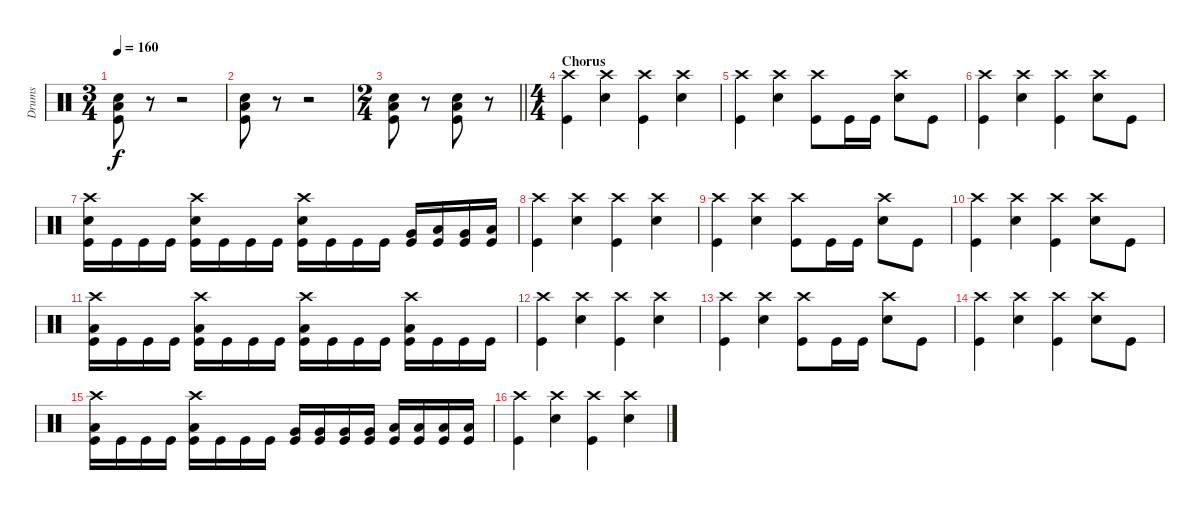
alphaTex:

\track ("Drums" "Drums") {instrument percussion}
\staff {score}
\articulation defaults
\ts (3 4)
\tempo 160
\clef neutral
\ks c
("Snare (hit) 2" "Kick (hit)" "Low Floor Tom (hit)").8{dy f} r.8 r.2 |
("Snare (hit) 2" "Kick (hit)" "Low Floor Tom (hit)").8 r.8 r.2 |
\ts (2 4)
\barLineRight lightlight
("Snare (hit) 2" "Kick (hit)" "Low Floor Tom (hit)").8 r.8 ("Snare (hit) 2" "Kick (hit)" "Low Floor Tom (hit)").8 r.8 |
\ts (4 4)
\section ("" "Chorus")
("Kick (hit)" "Crash high (hit)").4 ("Snare (hit) 2" "Crash high (hit)").4 ("Kick (hit)" "Crash high (hit)").4 ("Snare (hit) 2" "Crash high (hit)").4 |
("Kick (hit)" "Crash high (hit)").4 ("Snare (hit) 2" "Crash high (hit)").4 ("Kick (hit)" "Crash high (hit)").8 "Kick (hit)".16 "Kick (hit)".16 ("Snare (hit) 2" "Crash high (hit)").8 "Kick (hit)".8 |
("Kick (hit)" "Crash high (hit)").4 ("Snare (hit) 2" "Crash high (hit)").4 ("Kick (hit)" "Crash high (hit)").4 ("Snare (hit) 2" "Crash high (hit)").8 "Kick (hit)".8 |
("Kick (hit)" "Snare (hit) 2" "Crash high (hit)").16 "Kick (hit)".16 "Kick (hit)".16 "Kick (hit)".16 ("Kick (hit)" "Snare (hit) 2" "Crash high (hit)").16 "Kick (hit)".16 "Kick (hit)".16 "Kick (hit)".16 ("Kick (hit)" "Snare (hit) 2" "Crash high (hit)").16 "Kick (hit)".16 "Kick (hit)".16 "Kick (hit)".16 ("Kick (hit)" "Very Low Tom (hit)").16 ("Low Floor Tom (hit)" "Kick (hit)").16 ("Kick (hit)" "Very Low Tom (hit)").16 ("Kick (hit)" "Low Floor Tom (hit)").16 |
("Kick (hit)" "Crash high (hit)").4 ("Snare (hit) 2" "Crash high (hit)").4 ("Kick (hit)" "Crash high (hit)").4 ("Snare (hit) 2" "Crash high (hit)").4 |
("Kick (hit)" "Crash high (hit)").4 ("Snare (hit) 2" "Crash high (hit)").4 ("Kick (hit)" "Crash high (hit)").8 "Kick (hit)".16 "Kick (hit)".16 ("Snare (hit) 2" "Crash high (hit)").8 "Kick (hit)".8 |
("Kick (hit)" "Crash high (hit)").4 ("Snare (hit) 2" "Crash high (hit)").4 ("Kick (hit)" "Crash high (hit)").4 ("Snare (hit) 2" "Crash high (hit)").8 "Kick (hit)".8 |
("Kick (hit)" "Low Floor Tom (hit)" "Crash high (hit)").16 "Kick (hit)".16 "Kick (hit)".16 "Kick (hit)".16 ("Kick (hit)" "Low Floor Tom (hit)" "Crash high (hit)").16 "Kick (hit)".16 "Kick (hit)".16 "Kick (hit)".16 ("Kick (hit)" "Low Floor Tom (hit)" "Crash high (hit)").16 "Kick (hit)".16 "Kick (hit)".16 "Kick (hit)".16 ("Kick (hit)" "Low Floor Tom (hit)" "Crash high (hit)").16 "Kick (hit)".16 "Kick (hit)".16 "Kick (hit)".16 |
("Kick (hit)" "Crash high (hit)").4 ("Snare (hit) 2" "Crash high (hit)").4 ("Kick (hit)" "Crash high (hit)").4 ("Snare (hit) 2" "Crash high (hit)").4 |
("Kick (hit)" "Crash high (hit)").4 ("Snare (hit) 2" "Crash high (hit)").4 ("Kick (hit)" "Crash high (hit)").8 "Kick (hit)".16 "Kick (hit)".16 ("Snare (hit) 2" "Crash high (hit)").8 "Kick (hit)".8 |
("Kick (hit)" "Crash high (hit)").4 ("Snare (hit) 2" "Crash high (hit)").4 ("Kick (hit)" "Crash high (hit)").4 ("Snare (hit) 2" "Crash high (hit)").8 "Kick (hit)".8 |
("Kick (hit)" "Low Floor Tom (hit)" "Crash high (hit)").16 "Kick (hit)".16 "Kick (hit)".16 "Kick (hit)".16 ("Kick (hit)" "Low Floor Tom (hit)" "Crash high (hit)").16 "Kick (hit)".16 "Kick (hit)".16 "Kick (hit)".16 ("Kick (hit)" "Very Low Tom (hit)").16 ("Kick (hit)" "Very Low Tom (hit)").16 ("Very Low Tom (hit)" "Kick (hit)").16 ("Kick (hit)" "Very Low Tom (hit)").16 ("Kick (hit)" "Low Floor Tom (hit)").16 ("Kick (hit)" "Low Floor Tom (hit)").16 ("Low Floor Tom (hit)" "Kick (hit)").16 ("Kick (hit)" "Low Floor Tom (hit)").16 |
("Kick (hit)" "Crash high (hit)").4 ("Snare (hit) 2" "Crash high (hit)").4 ("Kick (hit)" "Crash high (hit)").4 ("Snare (hit) 2" "Crash high (hit)").4
